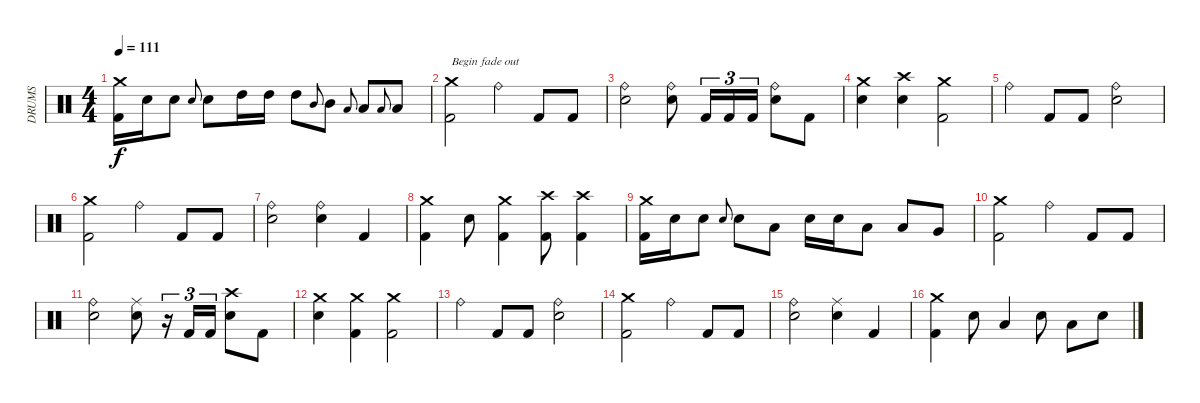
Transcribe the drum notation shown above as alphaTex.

\track ("DRUMS" "DRUMS") {instrument percussion}
\staff {score}
\articulation defaults
\ts (4 4)
\tempo 111
\clef neutral
\ks c
("Crash medium (hit)" "Kick (hit) 2").16{dy f} "Snare (hit) 2".16 "Snare (hit) 2".8 "Snare (hit) 2".8{gr onbeat} "Snare (hit) 2".8 "High Tom (hit)".16 "High Tom (hit)".16 "High Tom (hit)".8 "Mid Tom (hit)".8{gr onbeat} "Mid Tom (hit)".8 "Low Tom (hit)".8{gr onbeat} "Low Tom (hit)".8 "Low Tom (hit)".8{gr onbeat} "Low Tom (hit)".8 |
("Crash medium (hit)" "Kick (hit) 2").2{txt "Begin fade out" volume 11} "Ride (bell)".4 "Kick (hit) 2".8 "Kick (hit) 2".8 |
("Ride (bell)" "Snare (hit) 2").2 ("Ride (bell)" "Snare (hit) 2").8 "Kick (hit) 2".16{tu (3 2)} "Kick (hit) 2".16{tu (3 2)} "Kick (hit) 2".16{tu (3 2)} ("Ride (bell)" "Snare (hit) 2").8 "Kick (hit) 2".8 |
("Crash medium (hit)" "Snare (hit) 2").4 ("Crash high (hit)" "Snare (hit) 2").4 ("Crash medium (hit)" "Kick (hit) 2").2 |
"Ride (bell)".4 "Kick (hit) 2".8 "Kick (hit) 2".8 ("Ride (bell)" "Snare (hit) 2").2 |
("Crash medium (hit)" "Kick (hit) 2").2{volume 10} "Ride (bell)".4 "Kick (hit) 2".8 "Kick (hit) 2".8 |
("Ride (bell)" "Snare (hit) 2").2 ("Ride (bell)" "Snare (hit) 2").4 "Kick (hit) 2".4 |
("Crash medium (hit)" "Kick (hit) 2").4 "Snare (hit) 2".8 ("Crash medium (hit)" "Kick (hit) 2").4 ("Crash high (hit)" "Kick (hit) 2").8 ("Crash high (hit)" "Kick (hit) 2").4 |
("Crash medium (hit)" "Kick (hit) 2").16 "Snare (hit) 2".16 "Snare (hit) 2".8 "Snare (hit) 2".8{gr onbeat} "Snare (hit) 2".8 "Low Tom (hit)".8 "Snare (hit) 2".16 "Snare (hit) 2".16 "Low Tom (hit)".8 "Low Tom (hit)".8 "Very Low Tom (hit)".8 |
("Crash medium (hit)" "Kick (hit) 2").2{volume 8} "Ride (bell)".4 "Kick (hit) 2".8 "Kick (hit) 2".8 |
("Ride (bell)" "Snare (hit) 2").2 ("Ride (middle)" "Snare (hit) 2").8 r.16{tu (3 2)} "Kick (hit) 2".16{tu (3 2)} "Kick (hit) 2".16{tu (3 2)} ("Crash high (hit)" "Snare (hit) 2").8 "Kick (hit) 2".8 |
("Crash medium (hit)" "Snare (hit) 2").4 ("Crash medium (hit)" "Kick (hit) 2").4 ("Crash medium (hit)" "Kick (hit) 2").2 |
"Ride (bell)".4 "Kick (hit) 2".8 "Kick (hit) 2".8 ("Ride (bell)" "Snare (hit) 2").2 |
("Crash medium (hit)" "Kick (hit) 2").2{volume 7} "Ride (bell)".4 "Kick (hit) 2".8 "Kick (hit) 2".8 |
("Ride (bell)" "Snare (hit) 2").2 ("Ride (middle)" "Snare (hit) 2").4 "Kick (hit) 2".4 |
("Crash medium (hit)" "Kick (hit) 2").4 "Snare (hit) 2".8 "Low Tom (hit)".4 "Snare (hit) 2".8 "Low Tom (hit)".8 "Snare (hit) 2".8
